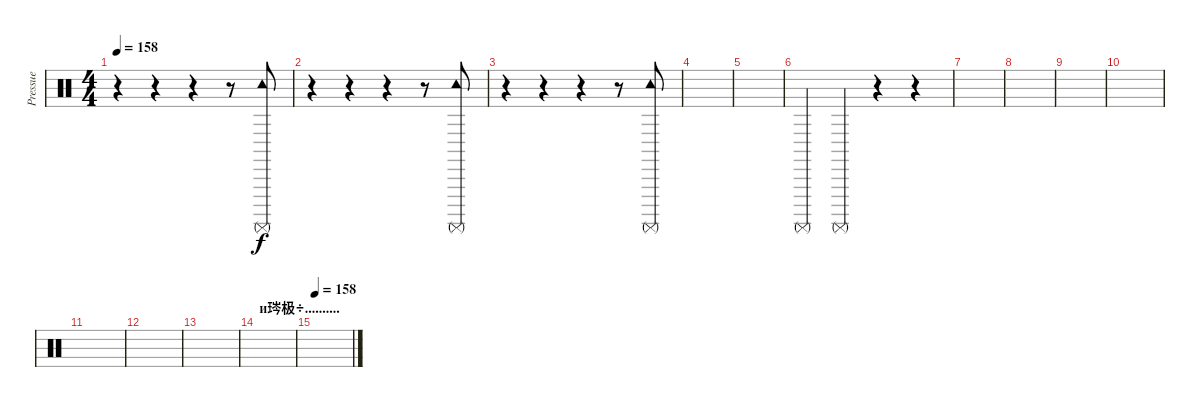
\track ("Pressue" "Pressue") {instrument percussion}
\staff {score}
\articulation defaults
\ts (4 4)
\tempo 158
\clef neutral
\ks c
r.4{dy f} r.4 r.4 r.8 ("Tambourine (hit)" "Surdo (mute)").8 |
r.4 r.4 r.4 r.8 ("Tambourine (hit)" "Surdo (mute)").8 |
r.4 r.4 r.4 r.8 ("Tambourine (hit)" "Surdo (mute)").8 |
|
|
"Surdo (mute)".4 "Surdo (mute)".4 r.4 r.4 |
|
|
|
|
|
|
|
\section ("" "и琌极..........")
|
\tempo 158
